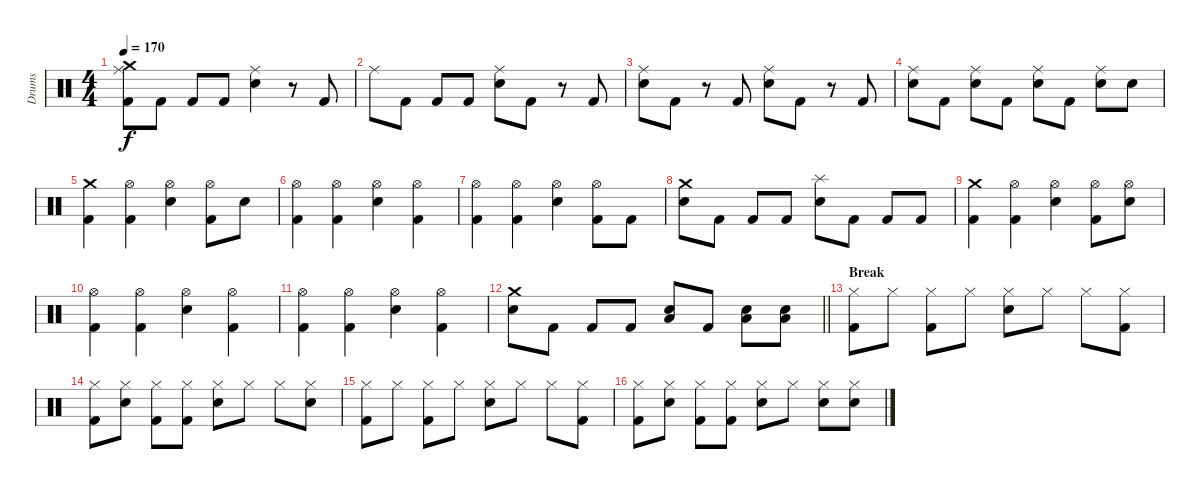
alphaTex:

\track ("Drums" "Drums") {instrument percussion}
\staff {score}
\articulation defaults
\ts (4 4)
\tempo 170
\clef neutral
\ks c
("Ride (middle)" "Crash medium (hit)" "Kick (hit) 2").8{dy f} "Kick (hit) 2".8 "Kick (hit) 2".8 "Kick (hit) 2".8 ("Ride (middle)" "Snare (hit) 2").4 r.8 "Kick (hit) 2".8 |
"Ride (middle)".8 "Kick (hit) 2".8 "Kick (hit) 2".8 "Kick (hit) 2".8 ("Ride (middle)" "Snare (hit) 2").8 "Kick (hit) 2".8 r.8 "Kick (hit) 2".8 |
("Ride (middle)" "Snare (hit) 2").8 "Kick (hit) 2".8 r.8 "Kick (hit) 2".8 ("Ride (middle)" "Snare (hit) 2").8 "Kick (hit) 2".8 r.8 "Kick (hit) 2".8 |
("Ride (middle)" "Snare (hit) 2").8 "Kick (hit) 2".8 ("Ride (middle)" "Snare (hit) 2").8 "Kick (hit) 2".8 ("Ride (middle)" "Snare (hit) 2").8 "Kick (hit) 2".8 ("Ride (middle)" "Snare (hit) 2").8 "Snare (hit) 2".8 |
("Crash medium (hit)" "Kick (hit) 2").4 ("Hi-Hat (open)" "Kick (hit) 2").4 ("Hi-Hat (open)" "Snare (hit) 2").4 ("Hi-Hat (open)" "Kick (hit) 2").8 "Snare (hit) 2".8 |
("Hi-Hat (open)" "Kick (hit) 2").4 ("Hi-Hat (open)" "Kick (hit) 2").4 ("Hi-Hat (open)" "Snare (hit) 2").4 ("Hi-Hat (open)" "Kick (hit) 2").4 |
("Hi-Hat (open)" "Kick (hit) 2").4 ("Hi-Hat (open)" "Kick (hit) 2").4 ("Hi-Hat (open)" "Snare (hit) 2").4 ("Hi-Hat (open)" "Kick (hit) 2").8 "Kick (hit) 2".8 |
("Crash medium (hit)" "Snare (hit) 2").8 "Kick (hit) 2".8 "Kick (hit) 2".8 "Kick (hit) 2".8 ("Splash (hit)" "Snare (hit) 2").8 "Kick (hit) 2".8 "Kick (hit) 2".8 "Kick (hit) 2".8 |
("Crash medium (hit)" "Kick (hit) 2").4 ("Hi-Hat (open)" "Kick (hit) 2").4 ("Hi-Hat (open)" "Snare (hit) 2").4 ("Hi-Hat (open)" "Kick (hit) 2").8 ("Hi-Hat (open)" "Snare (hit) 2").8 |
("Hi-Hat (open)" "Kick (hit) 2").4 ("Hi-Hat (open)" "Kick (hit) 2").4 ("Hi-Hat (open)" "Snare (hit) 2").4 ("Hi-Hat (open)" "Kick (hit) 2").4 |
("Hi-Hat (open)" "Kick (hit) 2").4 ("Hi-Hat (open)" "Kick (hit) 2").4 ("Hi-Hat (open)" "Snare (hit) 2").4 ("Hi-Hat (open)" "Kick (hit) 2").4 |
\barLineRight lightlight
("Crash medium (hit)" "Snare (hit) 2").8 "Kick (hit) 2".8 "Kick (hit) 2".8 "Kick (hit) 2".8 ("Low Tom (hit)" "Snare (hit) 2").8 "Kick (hit) 2".8 ("Low Floor Tom (hit)" "Snare (hit) 2").8 ("Low Floor Tom (hit)" "Snare (hit) 2").8 |
\section ("" "Break")
("Hi-Hat (closed)" "Kick (hit) 2").8 "Hi-Hat (closed)".8 ("Hi-Hat (closed)" "Kick (hit) 2").8 "Hi-Hat (closed)".8 ("Hi-Hat (closed)" "Snare (hit) 2").8 "Hi-Hat (closed)".8 "Hi-Hat (closed)".8 ("Hi-Hat (closed)" "Kick (hit) 2").8 |
("Hi-Hat (closed)" "Kick (hit) 2").8 ("Hi-Hat (closed)" "Snare (hit) 2").8 ("Hi-Hat (closed)" "Kick (hit) 2").8 ("Hi-Hat (closed)" "Kick (hit) 2").8 ("Hi-Hat (closed)" "Snare (hit) 2").8 "Hi-Hat (closed)".8 "Hi-Hat (closed)".8 ("Hi-Hat (closed)" "Snare (hit) 2").8 |
("Hi-Hat (closed)" "Kick (hit) 2").8 "Hi-Hat (closed)".8 ("Hi-Hat (closed)" "Kick (hit) 2").8 "Hi-Hat (closed)".8 ("Hi-Hat (closed)" "Snare (hit) 2").8 "Hi-Hat (closed)".8 "Hi-Hat (closed)".8 ("Hi-Hat (closed)" "Kick (hit) 2").8 |
("Hi-Hat (closed)" "Kick (hit) 2").8 ("Hi-Hat (closed)" "Snare (hit) 2").8 ("Hi-Hat (closed)" "Kick (hit) 2").8 ("Hi-Hat (closed)" "Kick (hit) 2").8 ("Hi-Hat (closed)" "Snare (hit) 2").8 "Hi-Hat (closed)".8 ("Hi-Hat (closed)" "Snare (hit) 2").8 ("Hi-Hat (closed)" "Snare (hit) 2").8
